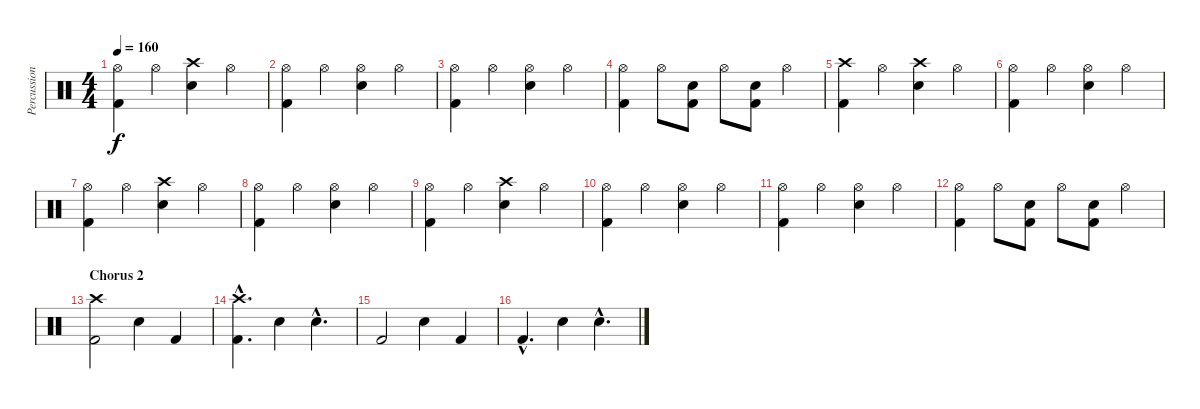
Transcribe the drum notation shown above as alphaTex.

\track ("Percussion" "Percussion") {instrument percussion}
\staff {score}
\articulation defaults
\ts (4 4)
\tempo 160
\clef neutral
\ks c
("Hi-Hat (open)" "Kick (hit) 2").4{dy f} "Hi-Hat (open)".4 ("Crash high (hit)" "Electric Snare (hit)").4 "Hi-Hat (open)".4 |
("Hi-Hat (open)" "Kick (hit) 2").4 "Hi-Hat (open)".4 ("Hi-Hat (open)" "Electric Snare (hit)").4 "Hi-Hat (open)".4 |
("Hi-Hat (open)" "Kick (hit) 2").4 "Hi-Hat (open)".4 ("Hi-Hat (open)" "Electric Snare (hit)").4 "Hi-Hat (open)".4 |
("Hi-Hat (open)" "Kick (hit) 2").4 "Hi-Hat (open)".8 ("Electric Snare (hit)" "Kick (hit) 2").8 "Hi-Hat (open)".8 ("Electric Snare (hit)" "Kick (hit) 2").8 "Hi-Hat (open)".4 |
("Crash high (hit)" "Kick (hit) 2").4 "Hi-Hat (open)".4 ("Crash high (hit)" "Electric Snare (hit)").4 "Hi-Hat (open)".4 |
("Hi-Hat (open)" "Kick (hit) 2").4 "Hi-Hat (open)".4 ("Hi-Hat (open)" "Electric Snare (hit)").4 "Hi-Hat (open)".4 |
("Hi-Hat (open)" "Kick (hit) 2").4 "Hi-Hat (open)".4 ("Crash high (hit)" "Electric Snare (hit)").4 "Hi-Hat (open)".4 |
("Hi-Hat (open)" "Kick (hit) 2").4 "Hi-Hat (open)".4 ("Hi-Hat (open)" "Electric Snare (hit)").4 "Hi-Hat (open)".4 |
("Hi-Hat (open)" "Kick (hit) 2").4 "Hi-Hat (open)".4 ("Crash high (hit)" "Electric Snare (hit)").4 "Hi-Hat (open)".4 |
("Hi-Hat (open)" "Kick (hit) 2").4 "Hi-Hat (open)".4 ("Hi-Hat (open)" "Electric Snare (hit)").4 "Hi-Hat (open)".4 |
("Hi-Hat (open)" "Kick (hit) 2").4 "Hi-Hat (open)".4 ("Hi-Hat (open)" "Electric Snare (hit)").4 "Hi-Hat (open)".4 |
("Hi-Hat (open)" "Kick (hit) 2").4 "Hi-Hat (open)".8 ("Electric Snare (hit)" "Kick (hit) 2").8 "Hi-Hat (open)".8 ("Electric Snare (hit)" "Kick (hit) 2").8 "Hi-Hat (open)".4 |
\section ("" "Chorus 2")
("Crash high (hit)" "Kick (hit) 2").2 "Electric Snare (hit)".4 "Kick (hit) 2".4 |
("Crash high (hit)"{hac} "Kick (hit) 2"{hac}).4{d} "Electric Snare (hit)".4 "Electric Snare (hit)"{hac}.4{d} |
"Kick (hit) 2".2 "Electric Snare (hit)".4 "Kick (hit) 2".4 |
"Kick (hit) 2"{hac}.4{d} "Electric Snare (hit)".4 "Electric Snare (hit)"{hac}.4{d}
